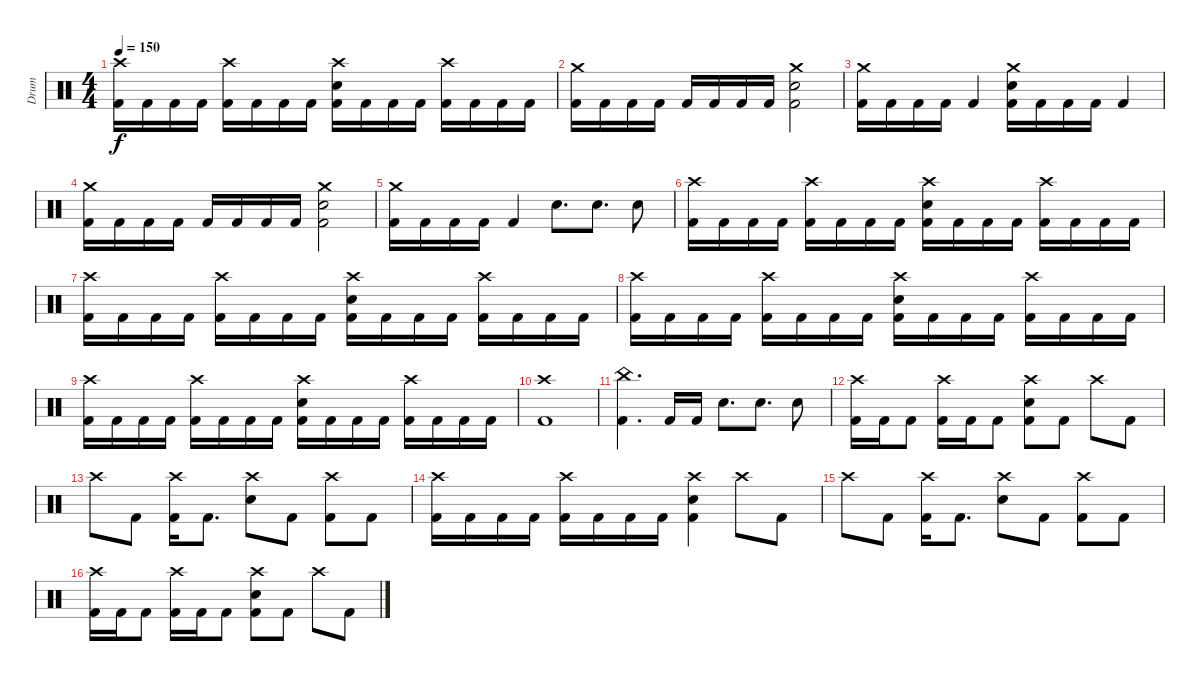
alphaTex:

\track ("Drum" "Drum") {instrument percussion}
\staff {score}
\articulation defaults
\ts (4 4)
\tempo 150
\clef neutral
\ks c
("Crash high (hit)" "Kick (hit) 2").16{dy f} "Kick (hit) 2".16 "Kick (hit) 2".16 "Kick (hit) 2".16 ("Crash high (hit)" "Kick (hit) 2").16 "Kick (hit) 2".16 "Kick (hit) 2".16 "Kick (hit) 2".16 ("Crash high (hit)" "Electric Snare (hit)" "Kick (hit) 2").16 "Kick (hit) 2".16 "Kick (hit) 2".16 "Kick (hit) 2".16 ("Crash high (hit)" "Kick (hit) 2").16 "Kick (hit) 2".16 "Kick (hit) 2".16 "Kick (hit) 2".16 |
("Crash medium (hit)" "Kick (hit) 2").16 "Kick (hit) 2".16 "Kick (hit) 2".16 "Kick (hit) 2".16 "Kick (hit) 2".16 "Kick (hit) 2".16 "Kick (hit) 2".16 "Kick (hit) 2".16 ("Crash medium (hit)" "Electric Snare (hit)" "Kick (hit) 2").2 |
("Crash medium (hit)" "Kick (hit) 2").16 "Kick (hit) 2".16 "Kick (hit) 2".16 "Kick (hit) 2".16 "Kick (hit) 2".4 ("Crash medium (hit)" "Electric Snare (hit)" "Kick (hit) 2").16 "Kick (hit) 2".16 "Kick (hit) 2".16 "Kick (hit) 2".16 "Kick (hit) 2".4 |
("Crash medium (hit)" "Kick (hit) 2").16 "Kick (hit) 2".16 "Kick (hit) 2".16 "Kick (hit) 2".16 "Kick (hit) 2".16 "Kick (hit) 2".16 "Kick (hit) 2".16 "Kick (hit) 2".16 ("Crash medium (hit)" "Electric Snare (hit)" "Kick (hit) 2").2 |
("Crash medium (hit)" "Kick (hit) 2").16 "Kick (hit) 2".16 "Kick (hit) 2".16 "Kick (hit) 2".16 "Kick (hit) 2".4 "Electric Snare (hit)".8{d} "Electric Snare (hit)".8{d} "Electric Snare (hit)".8 |
("Crash high (hit)" "Kick (hit) 2").16 "Kick (hit) 2".16 "Kick (hit) 2".16 "Kick (hit) 2".16 ("Crash high (hit)" "Kick (hit) 2").16 "Kick (hit) 2".16 "Kick (hit) 2".16 "Kick (hit) 2".16 ("Crash high (hit)" "Electric Snare (hit)" "Kick (hit) 2").16 "Kick (hit) 2".16 "Kick (hit) 2".16 "Kick (hit) 2".16 ("Crash high (hit)" "Kick (hit) 2").16 "Kick (hit) 2".16 "Kick (hit) 2".16 "Kick (hit) 2".16 |
("Crash high (hit)" "Kick (hit) 2").16 "Kick (hit) 2".16 "Kick (hit) 2".16 "Kick (hit) 2".16 ("Crash high (hit)" "Kick (hit) 2").16 "Kick (hit) 2".16 "Kick (hit) 2".16 "Kick (hit) 2".16 ("Crash high (hit)" "Electric Snare (hit)" "Kick (hit) 2").16 "Kick (hit) 2".16 "Kick (hit) 2".16 "Kick (hit) 2".16 ("Crash high (hit)" "Kick (hit) 2").16 "Kick (hit) 2".16 "Kick (hit) 2".16 "Kick (hit) 2".16 |
("Crash high (hit)" "Kick (hit) 2").16 "Kick (hit) 2".16 "Kick (hit) 2".16 "Kick (hit) 2".16 ("Crash high (hit)" "Kick (hit) 2").16 "Kick (hit) 2".16 "Kick (hit) 2".16 "Kick (hit) 2".16 ("Crash high (hit)" "Electric Snare (hit)" "Kick (hit) 2").16 "Kick (hit) 2".16 "Kick (hit) 2".16 "Kick (hit) 2".16 ("Crash high (hit)" "Kick (hit) 2").16 "Kick (hit) 2".16 "Kick (hit) 2".16 "Kick (hit) 2".16 |
("Crash high (hit)" "Kick (hit) 2").16 "Kick (hit) 2".16 "Kick (hit) 2".16 "Kick (hit) 2".16 ("Crash high (hit)" "Kick (hit) 2").16 "Kick (hit) 2".16 "Kick (hit) 2".16 "Kick (hit) 2".16 ("Crash high (hit)" "Electric Snare (hit)" "Kick (hit) 2").16 "Kick (hit) 2".16 "Kick (hit) 2".16 "Kick (hit) 2".16 ("Crash high (hit)" "Kick (hit) 2").16 "Kick (hit) 2".16 "Kick (hit) 2".16 "Kick (hit) 2".16 |
("Crash high (hit)" "Kick (hit) 2").1 |
("China (hit)" "Kick (hit) 2").4{d} "Kick (hit) 2".16 "Kick (hit) 2".16 "Electric Snare (hit)".8{d} "Electric Snare (hit)".8{d} "Electric Snare (hit)".8 |
("Crash high (hit)" "Kick (hit) 2").16 "Kick (hit) 2".16 "Kick (hit) 2".8 ("Crash high (hit)" "Kick (hit) 2").16 "Kick (hit) 2".16 "Kick (hit) 2".8 ("Crash high (hit)" "Electric Snare (hit)" "Kick (hit) 2").8 "Kick (hit) 2".8 "Crash high (hit)".8 "Kick (hit) 2".8 |
"Crash high (hit)".8 "Kick (hit) 2".8 ("Crash high (hit)" "Kick (hit) 2").16 "Kick (hit) 2".8{d} ("Crash high (hit)" "Electric Snare (hit)").8 "Kick (hit) 2".8 ("Crash high (hit)" "Kick (hit) 2").8 "Kick (hit) 2".8 |
("Crash high (hit)" "Kick (hit) 2").16 "Kick (hit) 2".16 "Kick (hit) 2".16 "Kick (hit) 2".16 ("Crash high (hit)" "Kick (hit) 2").16 "Kick (hit) 2".16 "Kick (hit) 2".16 "Kick (hit) 2".16 ("Crash high (hit)" "Electric Snare (hit)" "Kick (hit) 2").4 "Crash high (hit)".8 "Kick (hit) 2".8 |
"Crash high (hit)".8 "Kick (hit) 2".8 ("Crash high (hit)" "Kick (hit) 2").16 "Kick (hit) 2".8{d} ("Crash high (hit)" "Electric Snare (hit)").8 "Kick (hit) 2".8 ("Crash high (hit)" "Kick (hit) 2").8 "Kick (hit) 2".8 |
("Crash high (hit)" "Kick (hit) 2").16 "Kick (hit) 2".16 "Kick (hit) 2".8 ("Crash high (hit)" "Kick (hit) 2").16 "Kick (hit) 2".16 "Kick (hit) 2".8 ("Crash high (hit)" "Electric Snare (hit)" "Kick (hit) 2").8 "Kick (hit) 2".8 "Crash high (hit)".8 "Kick (hit) 2".8
